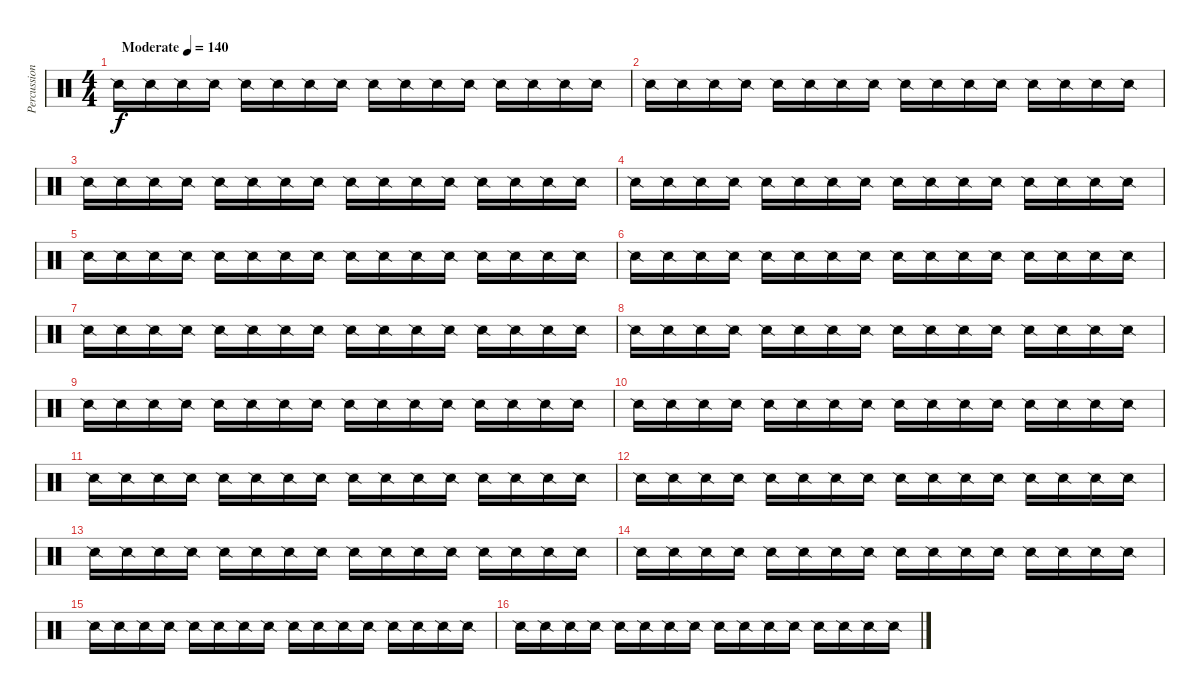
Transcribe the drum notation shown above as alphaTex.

\track ("Percussion" "Percussion") {instrument percussion}
\staff {score}
\articulation defaults
\ts (4 4)
\tempo (140 "Moderate")
\clef neutral
\ks c "Snare (side stick) 2".16{dy f} "Snare (side stick) 2".16 "Snare (side stick) 2".16 "Snare (side stick) 2".16 "Snare (side stick) 2".16 "Snare (side stick) 2".16 "Snare (side stick) 2".16 "Snare (side stick) 2".16 "Snare (side stick) 2".16 "Snare (side stick) 2".16 "Snare (side stick) 2".16 "Snare (side stick) 2".16 "Snare (side stick) 2".16 "Snare (side stick) 2".16 "Snare (side stick) 2".16 "Snare (side stick) 2".16
|
"Snare (side stick) 2".16 "Snare (side stick) 2".16 "Snare (side stick) 2".16 "Snare (side stick) 2".16 "Snare (side stick) 2".16 "Snare (side stick) 2".16 "Snare (side stick) 2".16 "Snare (side stick) 2".16 "Snare (side stick) 2".16 "Snare (side stick) 2".16 "Snare (side stick) 2".16 "Snare (side stick) 2".16 "Snare (side stick) 2".16 "Snare (side stick) 2".16 "Snare (side stick) 2".16 "Snare (side stick) 2".16 |
"Snare (side stick) 2".16 "Snare (side stick) 2".16 "Snare (side stick) 2".16 "Snare (side stick) 2".16 "Snare (side stick) 2".16 "Snare (side stick) 2".16 "Snare (side stick) 2".16 "Snare (side stick) 2".16 "Snare (side stick) 2".16 "Snare (side stick) 2".16 "Snare (side stick) 2".16 "Snare (side stick) 2".16 "Snare (side stick) 2".16 "Snare (side stick) 2".16 "Snare (side stick) 2".16 "Snare (side stick) 2".16 |
"Snare (side stick) 2".16 "Snare (side stick) 2".16 "Snare (side stick) 2".16 "Snare (side stick) 2".16 "Snare (side stick) 2".16 "Snare (side stick) 2".16 "Snare (side stick) 2".16 "Snare (side stick) 2".16 "Snare (side stick) 2".16 "Snare (side stick) 2".16 "Snare (side stick) 2".16 "Snare (side stick) 2".16 "Snare (side stick) 2".16 "Snare (side stick) 2".16 "Snare (side stick) 2".16 "Snare (side stick) 2".16 |
"Snare (side stick) 2".16 "Snare (side stick) 2".16 "Snare (side stick) 2".16 "Snare (side stick) 2".16 "Snare (side stick) 2".16 "Snare (side stick) 2".16 "Snare (side stick) 2".16 "Snare (side stick) 2".16 "Snare (side stick) 2".16 "Snare (side stick) 2".16 "Snare (side stick) 2".16 "Snare (side stick) 2".16 "Snare (side stick) 2".16 "Snare (side stick) 2".16 "Snare (side stick) 2".16 "Snare (side stick) 2".16 |
"Snare (side stick) 2".16 "Snare (side stick) 2".16 "Snare (side stick) 2".16 "Snare (side stick) 2".16 "Snare (side stick) 2".16 "Snare (side stick) 2".16 "Snare (side stick) 2".16 "Snare (side stick) 2".16 "Snare (side stick) 2".16 "Snare (side stick) 2".16 "Snare (side stick) 2".16 "Snare (side stick) 2".16 "Snare (side stick) 2".16 "Snare (side stick) 2".16 "Snare (side stick) 2".16 "Snare (side stick) 2".16 |
"Snare (side stick) 2".16 "Snare (side stick) 2".16 "Snare (side stick) 2".16 "Snare (side stick) 2".16 "Snare (side stick) 2".16 "Snare (side stick) 2".16 "Snare (side stick) 2".16 "Snare (side stick) 2".16 "Snare (side stick) 2".16 "Snare (side stick) 2".16 "Snare (side stick) 2".16 "Snare (side stick) 2".16 "Snare (side stick) 2".16 "Snare (side stick) 2".16 "Snare (side stick) 2".16 "Snare (side stick) 2".16 |
"Snare (side stick) 2".16 "Snare (side stick) 2".16 "Snare (side stick) 2".16 "Snare (side stick) 2".16 "Snare (side stick) 2".16 "Snare (side stick) 2".16 "Snare (side stick) 2".16 "Snare (side stick) 2".16 "Snare (side stick) 2".16 "Snare (side stick) 2".16 "Snare (side stick) 2".16 "Snare (side stick) 2".16 "Snare (side stick) 2".16 "Snare (side stick) 2".16 "Snare (side stick) 2".16 "Snare (side stick) 2".16 |
"Snare (side stick) 2".16 "Snare (side stick) 2".16 "Snare (side stick) 2".16 "Snare (side stick) 2".16 "Snare (side stick) 2".16 "Snare (side stick) 2".16 "Snare (side stick) 2".16 "Snare (side stick) 2".16 "Snare (side stick) 2".16 "Snare (side stick) 2".16 "Snare (side stick) 2".16 "Snare (side stick) 2".16 "Snare (side stick) 2".16 "Snare (side stick) 2".16 "Snare (side stick) 2".16 "Snare (side stick) 2".16 |
"Snare (side stick) 2".16 "Snare (side stick) 2".16 "Snare (side stick) 2".16 "Snare (side stick) 2".16 "Snare (side stick) 2".16 "Snare (side stick) 2".16 "Snare (side stick) 2".16 "Snare (side stick) 2".16 "Snare (side stick) 2".16 "Snare (side stick) 2".16 "Snare (side stick) 2".16 "Snare (side stick) 2".16 "Snare (side stick) 2".16 "Snare (side stick) 2".16 "Snare (side stick) 2".16 "Snare (side stick) 2".16 |
"Snare (side stick) 2".16 "Snare (side stick) 2".16 "Snare (side stick) 2".16 "Snare (side stick) 2".16 "Snare (side stick) 2".16 "Snare (side stick) 2".16 "Snare (side stick) 2".16 "Snare (side stick) 2".16 "Snare (side stick) 2".16 "Snare (side stick) 2".16 "Snare (side stick) 2".16 "Snare (side stick) 2".16 "Snare (side stick) 2".16 "Snare (side stick) 2".16 "Snare (side stick) 2".16 "Snare (side stick) 2".16 |
"Snare (side stick) 2".16 "Snare (side stick) 2".16 "Snare (side stick) 2".16 "Snare (side stick) 2".16 "Snare (side stick) 2".16 "Snare (side stick) 2".16 "Snare (side stick) 2".16 "Snare (side stick) 2".16 "Snare (side stick) 2".16 "Snare (side stick) 2".16 "Snare (side stick) 2".16 "Snare (side stick) 2".16 "Snare (side stick) 2".16 "Snare (side stick) 2".16 "Snare (side stick) 2".16 "Snare (side stick) 2".16 |
"Snare (side stick) 2".16 "Snare (side stick) 2".16 "Snare (side stick) 2".16 "Snare (side stick) 2".16 "Snare (side stick) 2".16 "Snare (side stick) 2".16 "Snare (side stick) 2".16 "Snare (side stick) 2".16 "Snare (side stick) 2".16 "Snare (side stick) 2".16 "Snare (side stick) 2".16 "Snare (side stick) 2".16 "Snare (side stick) 2".16 "Snare (side stick) 2".16 "Snare (side stick) 2".16 "Snare (side stick) 2".16 |
"Snare (side stick) 2".16 "Snare (side stick) 2".16 "Snare (side stick) 2".16 "Snare (side stick) 2".16 "Snare (side stick) 2".16 "Snare (side stick) 2".16 "Snare (side stick) 2".16 "Snare (side stick) 2".16 "Snare (side stick) 2".16 "Snare (side stick) 2".16 "Snare (side stick) 2".16 "Snare (side stick) 2".16 "Snare (side stick) 2".16 "Snare (side stick) 2".16 "Snare (side stick) 2".16 "Snare (side stick) 2".16 |
"Snare (side stick) 2".16 "Snare (side stick) 2".16 "Snare (side stick) 2".16 "Snare (side stick) 2".16 "Snare (side stick) 2".16 "Snare (side stick) 2".16 "Snare (side stick) 2".16 "Snare (side stick) 2".16 "Snare (side stick) 2".16 "Snare (side stick) 2".16 "Snare (side stick) 2".16 "Snare (side stick) 2".16 "Snare (side stick) 2".16 "Snare (side stick) 2".16 "Snare (side stick) 2".16 "Snare (side stick) 2".16 |
"Snare (side stick) 2".16 "Snare (side stick) 2".16 "Snare (side stick) 2".16 "Snare (side stick) 2".16 "Snare (side stick) 2".16 "Snare (side stick) 2".16 "Snare (side stick) 2".16 "Snare (side stick) 2".16 "Snare (side stick) 2".16 "Snare (side stick) 2".16 "Snare (side stick) 2".16 "Snare (side stick) 2".16 "Snare (side stick) 2".16 "Snare (side stick) 2".16 "Snare (side stick) 2".16 "Snare (side stick) 2".16
